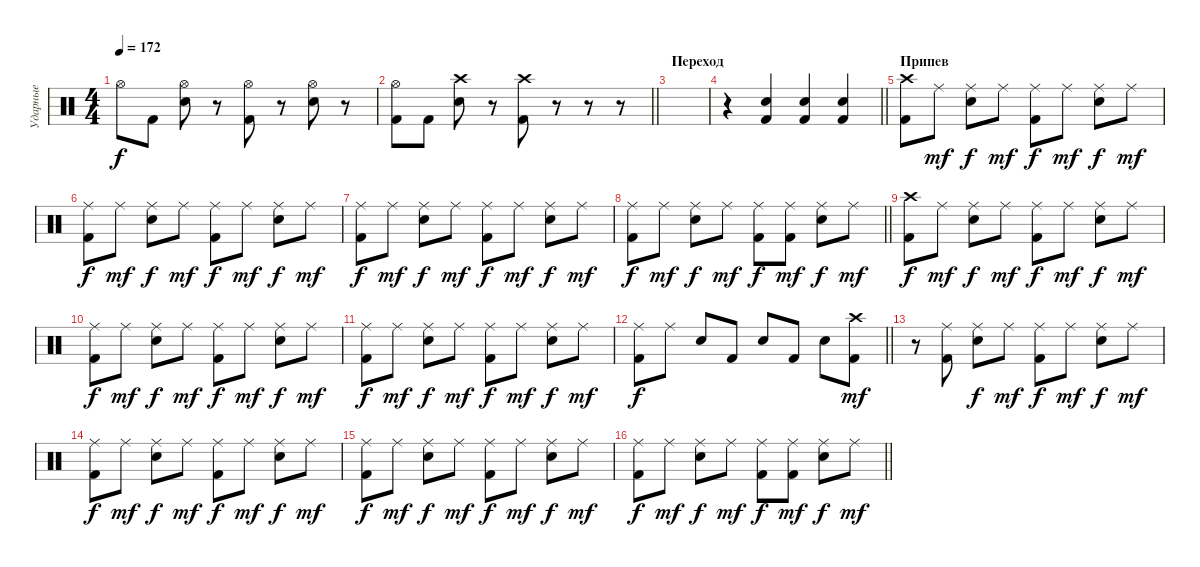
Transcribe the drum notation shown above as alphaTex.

\track ("Ударные" "Ударные") {instrument percussion}
\staff {score}
\articulation defaults
\ts (4 4)
\tempo 172
\clef neutral
\ks c "Hi-Hat (open)".8{dy f} "Kick (hit) 2".8
("Hi-Hat (open)" "Snare (hit) 2").8 r.8 ("Hi-Hat (open)" "Kick (hit) 2").8 r.8 ("Hi-Hat (open)" "Snare (hit) 2").8 r.8 |
\barLineRight lightlight
("Hi-Hat (open)" "Kick (hit) 2").8 "Kick (hit) 2".8 ("Crash high (hit)" "Snare (hit) 2").8 r.8 ("Crash high (hit)" "Kick (hit) 2").8 r.8 r.8 r.8 |
\section ("" "Переход")
|
\barLineRight lightlight
r.4 ("Snare (hit) 2" "Kick (hit) 2").4 ("Snare (hit) 2" "Kick (hit) 2").4 ("Snare (hit) 2" "Kick (hit) 2").4 |
\section ("" "Припев")
("Crash high (hit)" "Kick (hit) 2").8 "Ride (middle)".8{dy mf} ("Ride (middle)" "Snare (hit) 2").8{dy f} "Ride (middle)".8{dy mf} ("Ride (middle)" "Kick (hit) 2").8{dy f} "Ride (middle)".8{dy mf} ("Ride (middle)" "Snare (hit) 2").8{dy f} "Ride (middle)".8{dy mf} |
("Ride (middle)" "Kick (hit) 2").8{dy f} "Ride (middle)".8{dy mf} ("Ride (middle)" "Snare (hit) 2").8{dy f} "Ride (middle)".8{dy mf} ("Ride (middle)" "Kick (hit) 2").8{dy f} "Ride (middle)".8{dy mf} ("Ride (middle)" "Snare (hit) 2").8{dy f} "Ride (middle)".8{dy mf} |
("Ride (middle)" "Kick (hit) 2").8{dy f} "Ride (middle)".8{dy mf} ("Ride (middle)" "Snare (hit) 2").8{dy f} "Ride (middle)".8{dy mf} ("Ride (middle)" "Kick (hit) 2").8{dy f} "Ride (middle)".8{dy mf} ("Ride (middle)" "Snare (hit) 2").8{dy f} "Ride (middle)".8{dy mf} |
\barLineRight lightlight
("Ride (middle)" "Kick (hit) 2").8{dy f} "Ride (middle)".8{dy mf} ("Ride (middle)" "Snare (hit) 2").8{dy f} "Ride (middle)".8{dy mf} ("Ride (middle)" "Kick (hit) 2").8{dy f} ("Ride (middle)" "Kick (hit) 2").8{dy mf} ("Ride (middle)" "Snare (hit) 2").8{dy f} "Ride (middle)".8{dy mf} |
("Crash high (hit)" "Kick (hit) 2").8{dy f} "Ride (middle)".8{dy mf} ("Ride (middle)" "Snare (hit) 2").8{dy f} "Ride (middle)".8{dy mf} ("Ride (middle)" "Kick (hit) 2").8{dy f} "Ride (middle)".8{dy mf} ("Ride (middle)" "Snare (hit) 2").8{dy f} "Ride (middle)".8{dy mf} |
("Ride (middle)" "Kick (hit) 2").8{dy f} "Ride (middle)".8{dy mf} ("Ride (middle)" "Snare (hit) 2").8{dy f} "Ride (middle)".8{dy mf} ("Ride (middle)" "Kick (hit) 2").8{dy f} "Ride (middle)".8{dy mf} ("Ride (middle)" "Snare (hit) 2").8{dy f} "Ride (middle)".8{dy mf} |
("Ride (middle)" "Kick (hit) 2").8{dy f} "Ride (middle)".8{dy mf} ("Ride (middle)" "Snare (hit) 2").8{dy f} "Ride (middle)".8{dy mf} ("Ride (middle)" "Kick (hit) 2").8{dy f} "Ride (middle)".8{dy mf} ("Ride (middle)" "Snare (hit) 2").8{dy f} "Ride (middle)".8{dy mf} |
\barLineRight lightlight
("Ride (middle)" "Kick (hit) 2").8{dy f} "Ride (middle)".8 "Snare (hit) 2".8 "Kick (hit) 2".8 "Snare (hit) 2".8 "Kick (hit) 2".8 "Snare (hit) 2".8 ("Crash high (hit)" "Kick (hit) 2").8{dy mf} |
\section ("" "")
r.8 ("Ride (middle)" "Kick (hit) 2").8 ("Ride (middle)" "Snare (hit) 2").8{dy f} "Ride (middle)".8{dy mf} ("Ride (middle)" "Kick (hit) 2").8{dy f} "Ride (middle)".8{dy mf} ("Ride (middle)" "Snare (hit) 2").8{dy f} "Ride (middle)".8{dy mf} |
("Ride (middle)" "Kick (hit) 2").8{dy f} "Ride (middle)".8{dy mf} ("Ride (middle)" "Snare (hit) 2").8{dy f} "Ride (middle)".8{dy mf} ("Ride (middle)" "Kick (hit) 2").8{dy f} "Ride (middle)".8{dy mf} ("Ride (middle)" "Snare (hit) 2").8{dy f} "Ride (middle)".8{dy mf} |
("Ride (middle)" "Kick (hit) 2").8{dy f} "Ride (middle)".8{dy mf} ("Ride (middle)" "Snare (hit) 2").8{dy f} "Ride (middle)".8{dy mf} ("Ride (middle)" "Kick (hit) 2").8{dy f} "Ride (middle)".8{dy mf} ("Ride (middle)" "Snare (hit) 2").8{dy f} "Ride (middle)".8{dy mf} |
\barLineRight lightlight
("Ride (middle)" "Kick (hit) 2").8{dy f} "Ride (middle)".8{dy mf} ("Ride (middle)" "Snare (hit) 2").8{dy f} "Ride (middle)".8{dy mf} ("Ride (middle)" "Kick (hit) 2").8{dy f} ("Ride (middle)" "Kick (hit) 2").8{dy mf} ("Ride (middle)" "Snare (hit) 2").8{dy f} "Ride (middle)".8{dy mf}
